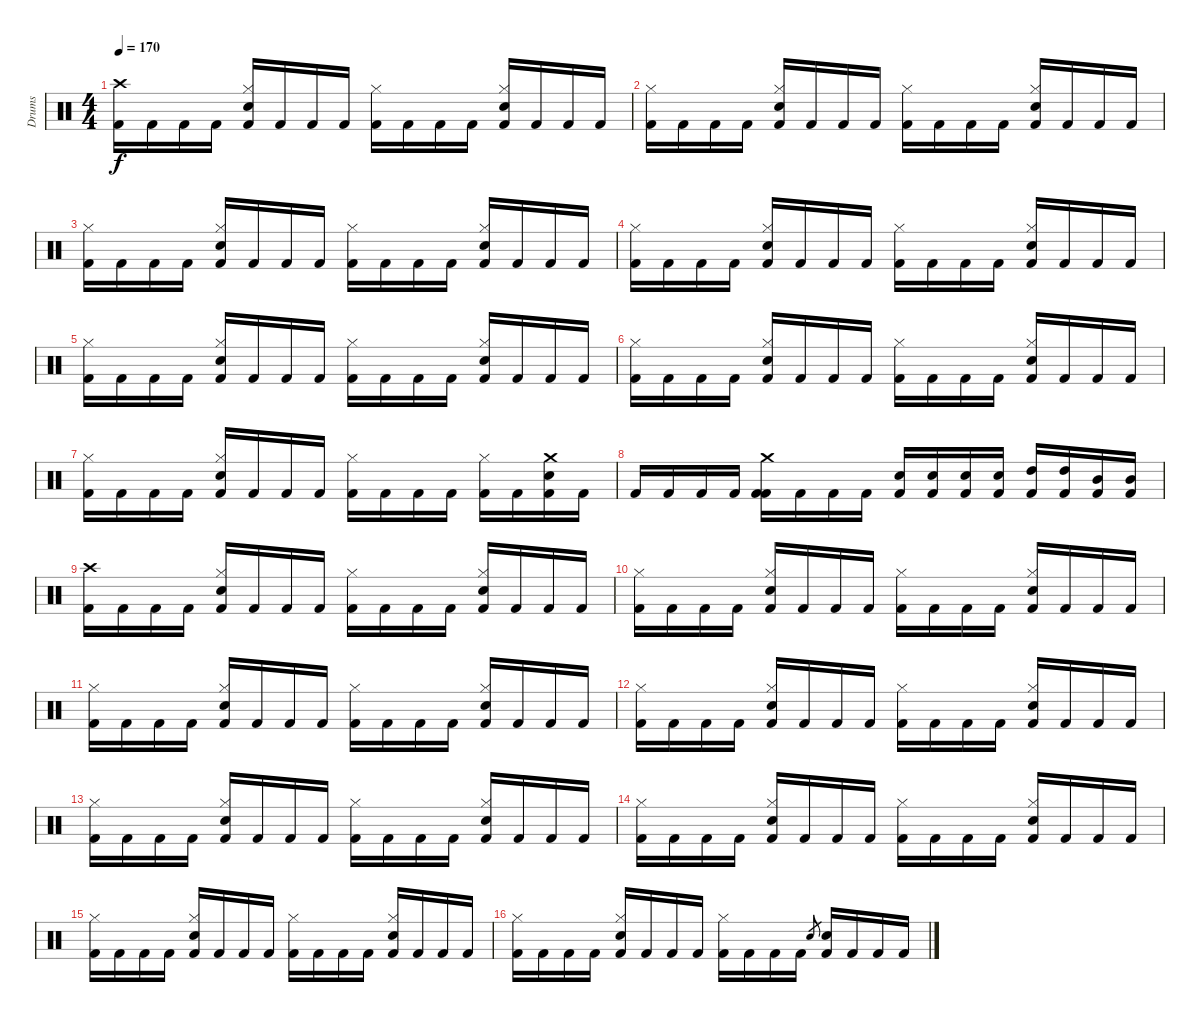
\track ("Drums" "Drums") {instrument percussion}
\staff {score}
\articulation defaults
\ts (4 4)
\tempo 170
\clef neutral
\ks c
("Crash high (hit)" "Kick (hit) 2").16{dy f} "Kick (hit) 2".16 "Kick (hit) 2".16 "Kick (hit) 2".16 ("Hi-Hat (closed)" "Snare (hit) 2" "Kick (hit) 2").16 "Kick (hit) 2".16 "Kick (hit) 2".16 "Kick (hit) 2".16 ("Hi-Hat (closed)" "Kick (hit) 2").16 "Kick (hit) 2".16 "Kick (hit) 2".16 "Kick (hit) 2".16 ("Hi-Hat (closed)" "Snare (hit) 2" "Kick (hit) 2").16 "Kick (hit) 2".16 "Kick (hit) 2".16 "Kick (hit) 2".16 |
("Hi-Hat (closed)" "Kick (hit) 2").16 "Kick (hit) 2".16 "Kick (hit) 2".16 "Kick (hit) 2".16 ("Hi-Hat (closed)" "Snare (hit) 2" "Kick (hit) 2").16 "Kick (hit) 2".16 "Kick (hit) 2".16 "Kick (hit) 2".16 ("Hi-Hat (closed)" "Kick (hit) 2").16 "Kick (hit) 2".16 "Kick (hit) 2".16 "Kick (hit) 2".16 ("Hi-Hat (closed)" "Snare (hit) 2" "Kick (hit) 2").16 "Kick (hit) 2".16 "Kick (hit) 2".16 "Kick (hit) 2".16 |
("Hi-Hat (closed)" "Kick (hit) 2").16 "Kick (hit) 2".16 "Kick (hit) 2".16 "Kick (hit) 2".16 ("Hi-Hat (closed)" "Snare (hit) 2" "Kick (hit) 2").16 "Kick (hit) 2".16 "Kick (hit) 2".16 "Kick (hit) 2".16 ("Hi-Hat (closed)" "Kick (hit) 2").16 "Kick (hit) 2".16 "Kick (hit) 2".16 "Kick (hit) 2".16 ("Hi-Hat (closed)" "Snare (hit) 2" "Kick (hit) 2").16 "Kick (hit) 2".16 "Kick (hit) 2".16 "Kick (hit) 2".16 |
("Hi-Hat (closed)" "Kick (hit) 2").16 "Kick (hit) 2".16 "Kick (hit) 2".16 "Kick (hit) 2".16 ("Hi-Hat (closed)" "Snare (hit) 2" "Kick (hit) 2").16 "Kick (hit) 2".16 "Kick (hit) 2".16 "Kick (hit) 2".16 ("Hi-Hat (closed)" "Kick (hit) 2").16 "Kick (hit) 2".16 "Kick (hit) 2".16 "Kick (hit) 2".16 ("Hi-Hat (closed)" "Snare (hit) 2" "Kick (hit) 2").16 "Kick (hit) 2".16 "Kick (hit) 2".16 "Kick (hit) 2".16 |
("Hi-Hat (closed)" "Kick (hit) 2").16 "Kick (hit) 2".16 "Kick (hit) 2".16 "Kick (hit) 2".16 ("Hi-Hat (closed)" "Snare (hit) 2" "Kick (hit) 2").16 "Kick (hit) 2".16 "Kick (hit) 2".16 "Kick (hit) 2".16 ("Hi-Hat (closed)" "Kick (hit) 2").16 "Kick (hit) 2".16 "Kick (hit) 2".16 "Kick (hit) 2".16 ("Hi-Hat (closed)" "Snare (hit) 2" "Kick (hit) 2").16 "Kick (hit) 2".16 "Kick (hit) 2".16 "Kick (hit) 2".16 |
("Hi-Hat (closed)" "Kick (hit) 2").16 "Kick (hit) 2".16 "Kick (hit) 2".16 "Kick (hit) 2".16 ("Hi-Hat (closed)" "Snare (hit) 2" "Kick (hit) 2").16 "Kick (hit) 2".16 "Kick (hit) 2".16 "Kick (hit) 2".16 ("Hi-Hat (closed)" "Kick (hit) 2").16 "Kick (hit) 2".16 "Kick (hit) 2".16 "Kick (hit) 2".16 ("Hi-Hat (closed)" "Snare (hit) 2" "Kick (hit) 2").16 "Kick (hit) 2".16 "Kick (hit) 2".16 "Kick (hit) 2".16 |
("Hi-Hat (closed)" "Kick (hit) 2").16 "Kick (hit) 2".16 "Kick (hit) 2".16 "Kick (hit) 2".16 ("Hi-Hat (closed)" "Snare (hit) 2" "Kick (hit) 2").16 "Kick (hit) 2".16 "Kick (hit) 2".16 "Kick (hit) 2".16 ("Hi-Hat (closed)" "Kick (hit) 2").16 "Kick (hit) 2".16 "Kick (hit) 2".16 "Kick (hit) 2".16 ("Hi-Hat (closed)" "Kick (hit) 2").16 "Kick (hit) 2".16 ("Crash medium (hit)" "Snare (hit) 2" "Kick (hit) 2").16 "Kick (hit) 2".16 |
"Kick (hit) 2".16 "Kick (hit) 2".16 "Kick (hit) 2".16 "Kick (hit) 2".16 ("Crash medium (hit)" "Kick (hit) 2" "Kick (hit) 2").16 "Kick (hit) 2".16 "Kick (hit) 2".16 "Kick (hit) 2".16 ("Snare (hit) 2" "Kick (hit) 2").16 ("Snare (hit) 2" "Kick (hit) 2").16 ("Snare (hit) 2" "Kick (hit) 2").16 ("Snare (hit) 2" "Kick (hit) 2").16 ("High Tom (hit)" "Kick (hit) 2").16 ("High Tom (hit)" "Kick (hit) 2").16 ("Mid Tom (hit)" "Kick (hit) 2").16 ("Mid Tom (hit)" "Kick (hit) 2").16 |
("Crash high (hit)" "Kick (hit) 2").16 "Kick (hit) 2".16 "Kick (hit) 2".16 "Kick (hit) 2".16 ("Hi-Hat (closed)" "Snare (hit) 2" "Kick (hit) 2").16 "Kick (hit) 2".16 "Kick (hit) 2".16 "Kick (hit) 2".16 ("Hi-Hat (closed)" "Kick (hit) 2").16 "Kick (hit) 2".16 "Kick (hit) 2".16 "Kick (hit) 2".16 ("Hi-Hat (closed)" "Snare (hit) 2" "Kick (hit) 2").16 "Kick (hit) 2".16 "Kick (hit) 2".16 "Kick (hit) 2".16 |
("Hi-Hat (closed)" "Kick (hit) 2").16 "Kick (hit) 2".16 "Kick (hit) 2".16 "Kick (hit) 2".16 ("Hi-Hat (closed)" "Snare (hit) 2" "Kick (hit) 2").16 "Kick (hit) 2".16 "Kick (hit) 2".16 "Kick (hit) 2".16 ("Hi-Hat (closed)" "Kick (hit) 2").16 "Kick (hit) 2".16 "Kick (hit) 2".16 "Kick (hit) 2".16 ("Hi-Hat (closed)" "Snare (hit) 2" "Kick (hit) 2").16 "Kick (hit) 2".16 "Kick (hit) 2".16 "Kick (hit) 2".16 |
("Hi-Hat (closed)" "Kick (hit) 2").16 "Kick (hit) 2".16 "Kick (hit) 2".16 "Kick (hit) 2".16 ("Hi-Hat (closed)" "Snare (hit) 2" "Kick (hit) 2").16 "Kick (hit) 2".16 "Kick (hit) 2".16 "Kick (hit) 2".16 ("Hi-Hat (closed)" "Kick (hit) 2").16 "Kick (hit) 2".16 "Kick (hit) 2".16 "Kick (hit) 2".16 ("Hi-Hat (closed)" "Snare (hit) 2" "Kick (hit) 2").16 "Kick (hit) 2".16 "Kick (hit) 2".16 "Kick (hit) 2".16 |
("Hi-Hat (closed)" "Kick (hit) 2").16 "Kick (hit) 2".16 "Kick (hit) 2".16 "Kick (hit) 2".16 ("Hi-Hat (closed)" "Snare (hit) 2" "Kick (hit) 2").16 "Kick (hit) 2".16 "Kick (hit) 2".16 "Kick (hit) 2".16 ("Hi-Hat (closed)" "Kick (hit) 2").16 "Kick (hit) 2".16 "Kick (hit) 2".16 "Kick (hit) 2".16 ("Hi-Hat (closed)" "Snare (hit) 2" "Kick (hit) 2").16 "Kick (hit) 2".16 "Kick (hit) 2".16 "Kick (hit) 2".16 |
("Hi-Hat (closed)" "Kick (hit) 2").16 "Kick (hit) 2".16 "Kick (hit) 2".16 "Kick (hit) 2".16 ("Hi-Hat (closed)" "Snare (hit) 2" "Kick (hit) 2").16 "Kick (hit) 2".16 "Kick (hit) 2".16 "Kick (hit) 2".16 ("Hi-Hat (closed)" "Kick (hit) 2").16 "Kick (hit) 2".16 "Kick (hit) 2".16 "Kick (hit) 2".16 ("Hi-Hat (closed)" "Snare (hit) 2" "Kick (hit) 2").16 "Kick (hit) 2".16 "Kick (hit) 2".16 "Kick (hit) 2".16 |
("Hi-Hat (closed)" "Kick (hit) 2").16 "Kick (hit) 2".16 "Kick (hit) 2".16 "Kick (hit) 2".16 ("Hi-Hat (closed)" "Snare (hit) 2" "Kick (hit) 2").16 "Kick (hit) 2".16 "Kick (hit) 2".16 "Kick (hit) 2".16 ("Hi-Hat (closed)" "Kick (hit) 2").16 "Kick (hit) 2".16 "Kick (hit) 2".16 "Kick (hit) 2".16 ("Hi-Hat (closed)" "Snare (hit) 2" "Kick (hit) 2").16 "Kick (hit) 2".16 "Kick (hit) 2".16 "Kick (hit) 2".16 |
("Hi-Hat (closed)" "Kick (hit) 2").16 "Kick (hit) 2".16 "Kick (hit) 2".16 "Kick (hit) 2".16 ("Hi-Hat (closed)" "Snare (hit) 2" "Kick (hit) 2").16 "Kick (hit) 2".16 "Kick (hit) 2".16 "Kick (hit) 2".16 ("Hi-Hat (closed)" "Kick (hit) 2").16 "Kick (hit) 2".16 "Kick (hit) 2".16 "Kick (hit) 2".16 ("Hi-Hat (closed)" "Snare (hit) 2" "Kick (hit) 2").16 "Kick (hit) 2".16 "Kick (hit) 2".16 "Kick (hit) 2".16 |
("Hi-Hat (closed)" "Kick (hit) 2").16 "Kick (hit) 2".16 "Kick (hit) 2".16 "Kick (hit) 2".16 ("Hi-Hat (closed)" "Snare (hit) 2" "Kick (hit) 2").16 "Kick (hit) 2".16 "Kick (hit) 2".16 "Kick (hit) 2".16 ("Hi-Hat (closed)" "Kick (hit) 2").16 "Kick (hit) 2".16 "Kick (hit) 2".16 "Kick (hit) 2".16 "Snare (hit) 2".8{gr} ("Snare (hit) 2" "Kick (hit) 2").16 "Kick (hit) 2".16 "Kick (hit) 2".16 "Kick (hit) 2".16
